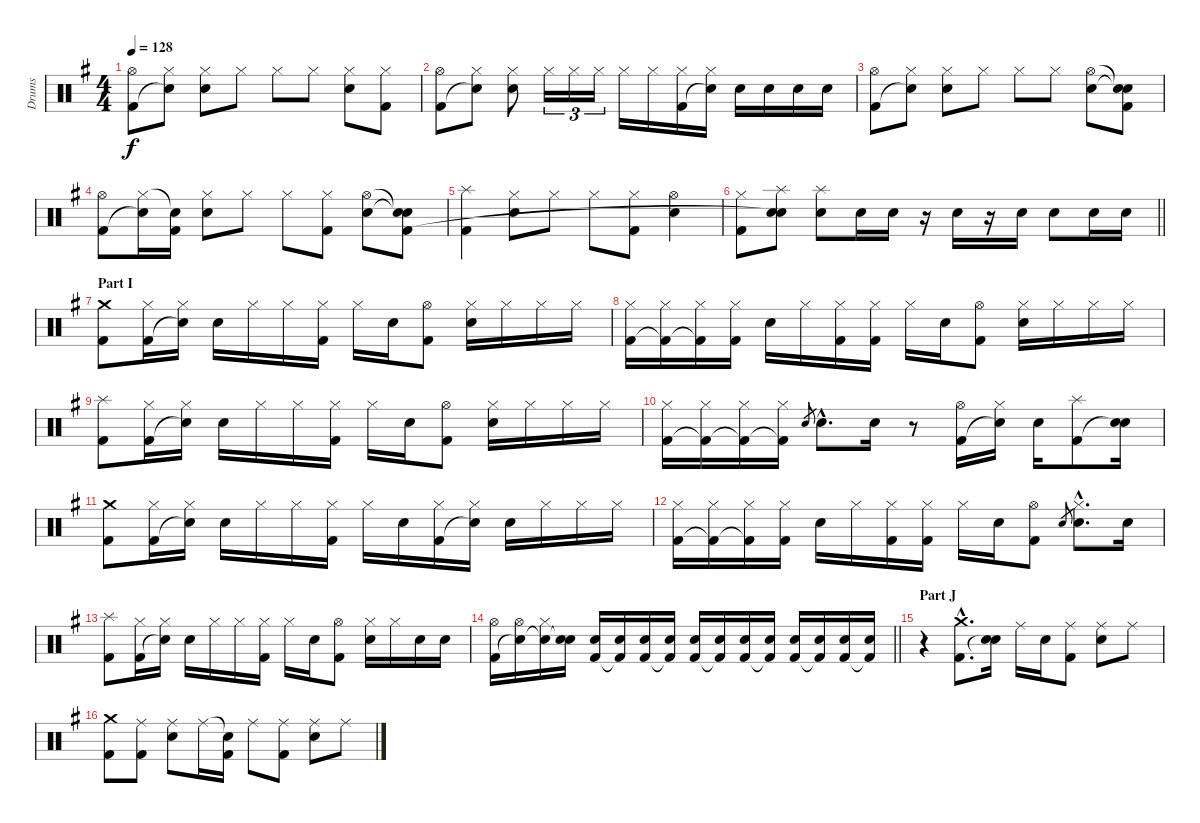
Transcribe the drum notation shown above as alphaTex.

\track ("Drums" "Drums") {instrument percussion}
\staff {score}
\articulation defaults
\ts (4 4)
\tempo 128
\clef neutral
\ks g
("Hi-Hat (open)" "Kick (hit) 2").8{dy f} ("Hi-Hat (closed)" "Snare (hit)"{t}).8 ("Hi-Hat (closed)" "Electric Snare (hit)").8 "Hi-Hat (closed)".8 "Hi-Hat (closed)".8 "Hi-Hat (closed)".8 ("Hi-Hat (closed)" "Electric Snare (hit)").8 ("Hi-Hat (closed)" "Kick (hit) 2").8 |
("Hi-Hat (open)" "Kick (hit) 2").8 ("Hi-Hat (closed)" "Snare (hit)"{t}).8 ("Hi-Hat (closed)" "Electric Snare (hit)").8 "Hi-Hat (closed)".16{tu (3 2)} "Hi-Hat (closed)".16{tu (3 2)} "Hi-Hat (closed)".16{tu (3 2)} "Hi-Hat (closed)".16 "Hi-Hat (closed)".16 ("Hi-Hat (closed)" "Kick (hit) 2").16 ("Hi-Hat (closed)" "Snare (hit)"{t}).16 "Electric Snare (hit)".16 "Electric Snare (hit)".16 "Electric Snare (hit)".16 "Electric Snare (hit)".16 |
("Hi-Hat (open)" "Kick (hit) 2").8 ("Hi-Hat (closed)" "Snare (hit)"{t}).8 ("Hi-Hat (closed)" "Electric Snare (hit)").8 "Hi-Hat (closed)".8 "Hi-Hat (closed)".8 "Hi-Hat (closed)".8 ("Hi-Hat (open)" "Electric Snare (hit)").8 ("Snare (hit)"{t} "Snare (hit)"{t} "Kick (hit) 2").8 |
("Hi-Hat (open)" "Kick (hit) 2").8 ("Hi-Hat (closed)" "Snare (hit)"{t}).16 ("Snare (hit)"{t} "Kick (hit) 2").16 ("Hi-Hat (closed)" "Electric Snare (hit)").8 "Hi-Hat (closed)".8 "Hi-Hat (closed)".8 ("Hi-Hat (closed)" "Kick (hit) 2").8 ("Hi-Hat (open)" "Electric Snare (hit)").8 ("Snare (hit)"{t} "Snare (hit)"{t} "Kick (hit) 2").8 |
("Splash (hit)" "Kick (hit) 2").4 ("Hi-Hat (closed)" "Electric Snare (hit)").8 "Hi-Hat (closed)".8 "Hi-Hat (closed)".8 ("Hi-Hat (closed)" "Kick (hit) 2").8 ("Hi-Hat (open)" "Electric Snare (hit)").4 |
\barLineRight lightlight
("Hi-Hat (closed)" "Kick (hit) 2").8 ("Splash (hit)" "Electric Snare (hit)" "Snare (hit)"{t}).8 ("Splash (hit)" "Electric Snare (hit)").8 "Electric Snare (hit)".16 "Electric Snare (hit)".16 r.16 "Electric Snare (hit)".16 r.16 "Electric Snare (hit)".16 "Electric Snare (hit)".8 "Electric Snare (hit)".16 "Electric Snare (hit)".16 |
\section ("" "Part I")
("Crash medium (hit)" "Kick (hit) 2").8 ("Hi-Hat (closed)" "Kick (hit) 2").16 ("Hi-Hat (closed)" "Snare (hit)"{t}).16 "Electric Snare (hit)".16 "Hi-Hat (closed)".16 "Hi-Hat (closed)".16 ("Hi-Hat (closed)" "Kick (hit) 2").16 "Hi-Hat (closed)".16 "Electric Snare (hit)".16 ("Hi-Hat (open)" "Kick (hit) 2").8 ("Hi-Hat (closed)" "Electric Snare (hit)").16 "Hi-Hat (closed)".16 "Hi-Hat (closed)".16 "Hi-Hat (closed)".16 |
("Hi-Hat (closed)" "Kick (hit) 2").16 ("Hi-Hat (closed)" "Kick (hit) 2"{t}).16 ("Hi-Hat (closed)" "Kick (hit) 2"{t}).16 ("Hi-Hat (closed)" "Kick (hit) 2").16 "Electric Snare (hit)".16 "Hi-Hat (closed)".16 ("Hi-Hat (closed)" "Kick (hit) 2").16 ("Hi-Hat (closed)" "Kick (hit) 2").16 "Hi-Hat (closed)".16 "Electric Snare (hit)".16 ("Hi-Hat (open)" "Kick (hit) 2").8 ("Hi-Hat (closed)" "Electric Snare (hit)").16 "Hi-Hat (closed)".16 "Hi-Hat (closed)".16 "Hi-Hat (closed)".16 |
("Splash (hit)" "Kick (hit) 2").8 ("Hi-Hat (closed)" "Kick (hit) 2").16 ("Hi-Hat (closed)" "Snare (hit)"{t}).16 "Electric Snare (hit)".16 "Hi-Hat (closed)".16 "Hi-Hat (closed)".16 ("Hi-Hat (closed)" "Kick (hit) 2").16 "Hi-Hat (closed)".16 "Electric Snare (hit)".16 ("Hi-Hat (open)" "Kick (hit) 2").8 ("Hi-Hat (closed)" "Electric Snare (hit)").16 "Hi-Hat (closed)".16 "Hi-Hat (closed)".16 "Hi-Hat (closed)".16 |
("Hi-Hat (closed)" "Kick (hit) 2").16 ("Hi-Hat (closed)" "Kick (hit) 2"{t}).16 ("Hi-Hat (closed)" "Kick (hit) 2"{t}).16 ("Hi-Hat (closed)" "Kick (hit) 2"{t}).16 "Electric Snare (hit)".8{gr} "Electric Snare (hit)"{hac}.8{d} "Electric Snare (hit)".16 r.8 ("Hi-Hat (open)" "Kick (hit) 2").16 ("Hi-Hat (closed)" "Snare (hit)"{t}).16 "Electric Snare (hit)".16 ("Splash (hit)" "Kick (hit) 2").8 ("Electric Snare (hit)" "Snare (hit)"{t}).16 |
("Crash medium (hit)" "Kick (hit) 2").8 ("Hi-Hat (closed)" "Kick (hit) 2").16 ("Hi-Hat (closed)" "Snare (hit)"{t}).16 "Electric Snare (hit)".16 "Hi-Hat (closed)".16 "Hi-Hat (closed)".16 ("Hi-Hat (closed)" "Kick (hit) 2").16 "Hi-Hat (closed)".16 "Electric Snare (hit)".16 ("Hi-Hat (closed)" "Kick (hit) 2").16 ("Hi-Hat (closed)" "Snare (hit)"{t}).16 "Electric Snare (hit)".16 "Hi-Hat (closed)".16 "Hi-Hat (closed)".16 "Hi-Hat (closed)".16 |
("Hi-Hat (closed)" "Kick (hit) 2").16 ("Hi-Hat (closed)" "Kick (hit) 2"{t}).16 ("Hi-Hat (closed)" "Kick (hit) 2"{t}).16 ("Hi-Hat (closed)" "Kick (hit) 2").16 "Electric Snare (hit)".16 "Hi-Hat (closed)".16 ("Hi-Hat (closed)" "Kick (hit) 2").16 ("Hi-Hat (closed)" "Kick (hit) 2").16 "Hi-Hat (closed)".16 "Electric Snare (hit)".16 ("Hi-Hat (open)" "Kick (hit) 2").8 "Electric Snare (hit)".8{gr} ("Hi-Hat (closed)"{hac} "Electric Snare (hit)"{hac}).8{d} "Electric Snare (hit)".16 |
("Splash (hit)" "Kick (hit) 2").8 ("Hi-Hat (closed)" "Kick (hit) 2").16 ("Hi-Hat (closed)" "Snare (hit)"{t}).16 "Electric Snare (hit)".16 "Hi-Hat (closed)".16 "Hi-Hat (closed)".16 ("Hi-Hat (closed)" "Kick (hit) 2").16 "Hi-Hat (closed)".16 "Electric Snare (hit)".16 ("Hi-Hat (open)" "Kick (hit) 2").8 ("Hi-Hat (closed)" "Electric Snare (hit)").16 "Hi-Hat (closed)".16 "Electric Snare (hit)".16 "Electric Snare (hit)".16 |
\barLineRight lightlight
("Hi-Hat (open)" "Kick (hit) 2").16 ("Hi-Hat (open)" "Snare (hit)"{t}).16 ("Hi-Hat (closed)" "Snare (hit)"{t}).16 ("Electric Snare (hit)" "Snare (hit)"{t}).16 ("Electric Snare (hit)" "Kick (hit) 2").16 ("Electric Snare (hit)" "Kick (hit) 2"{t}).16 ("Electric Snare (hit)" "Kick (hit) 2").16 ("Electric Snare (hit)" "Kick (hit) 2"{t}).16 ("Electric Snare (hit)" "Kick (hit) 2").16 ("Electric Snare (hit)" "Kick (hit) 2"{t}).16 ("Electric Snare (hit)" "Kick (hit) 2").16 ("Electric Snare (hit)" "Kick (hit) 2"{t}).16 ("Electric Snare (hit)" "Kick (hit) 2").16 ("Electric Snare (hit)" "Kick (hit) 2"{t}).16 ("Electric Snare (hit)" "Kick (hit) 2").16 ("Electric Snare (hit)" "Kick (hit) 2"{t}).16 |
\section ("" "Part J")
r.4 ("Crash medium (hit)"{hac} "Kick (hit) 2"{hac}).8{d} ("Electric Snare (hit)" "Snare (hit)"{t}).16 "Ride (middle)".16 "Electric Snare (hit)".16 ("Ride (middle)" "Kick (hit) 2").8 ("Ride (middle)" "Electric Snare (hit)").8 "Ride (middle)".8 |
("Crash medium (hit)" "Kick (hit) 2").8 ("Ride (middle)" "Kick (hit) 2").8 ("Ride (middle)" "Electric Snare (hit)").8 "Ride (middle)".16 ("Snare (hit)"{t} "Kick (hit) 2").16 "Ride (middle)".8 ("Ride (middle)" "Kick (hit) 2").8 ("Ride (middle)" "Electric Snare (hit)").8 "Ride (middle)".8
